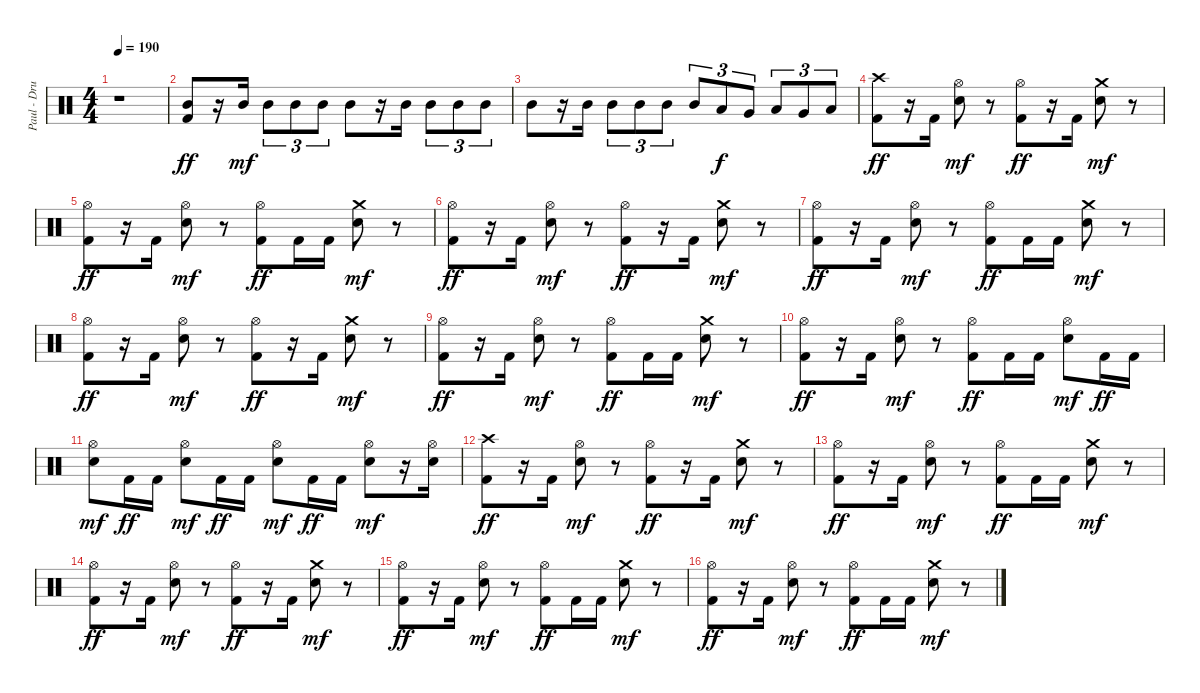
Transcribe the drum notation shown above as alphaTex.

\track ("Paul - Drums" "Paul - Dru") {instrument percussion}
\staff {score}
\articulation defaults
\ts (4 4)
\tempo 190
\clef neutral
\ks c
r.1{dy ff} |
("Mid Tom (hit)" "Kick (hit) 2").8 r.16 "Mid Tom (hit)".16{dy mf} "Mid Tom (hit)".8{tu (3 2)} "Mid Tom (hit)".8{tu (3 2)} "Mid Tom (hit)".8{tu (3 2)} "Mid Tom (hit)".8 r.16 "Mid Tom (hit)".16 "Mid Tom (hit)".8{tu (3 2)} "Mid Tom (hit)".8{tu (3 2)} "Mid Tom (hit)".8{tu (3 2)} |
"Mid Tom (hit)".8 r.16 "Mid Tom (hit)".16 "Mid Tom (hit)".8{tu (3 2)} "Mid Tom (hit)".8{tu (3 2)} "Mid Tom (hit)".8{tu (3 2)} "Mid Tom (hit)".8{tu (3 2)} "Low Tom (hit)".8{tu (3 2) dy f} "Very Low Tom (hit)".8{tu (3 2)} "Low Tom (hit)".8{tu (3 2)} "Very Low Tom (hit)".8{tu (3 2)} "Low Floor Tom (hit)".8{tu (3 2)} |
("Crash high (hit)" "Kick (hit) 2").8{dy ff} r.16 "Kick (hit) 2".16 ("Hi-Hat (open)" "Electric Snare (hit)").8{dy mf} r.8 ("Hi-Hat (open)" "Kick (hit) 2").8{dy ff} r.16 "Kick (hit) 2".16 ("Crash medium (hit)" "Electric Snare (hit)").8{dy mf} r.8 |
("Hi-Hat (open)" "Kick (hit) 2").8{dy ff} r.16 "Kick (hit) 2".16 ("Hi-Hat (open)" "Electric Snare (hit)").8{dy mf} r.8 ("Hi-Hat (open)" "Kick (hit) 2").8{dy ff} "Kick (hit) 2".16 "Kick (hit) 2".16 ("Crash medium (hit)" "Electric Snare (hit)").8{dy mf} r.8 |
("Hi-Hat (open)" "Kick (hit) 2").8{dy ff} r.16 "Kick (hit) 2".16 ("Hi-Hat (open)" "Electric Snare (hit)").8{dy mf} r.8 ("Hi-Hat (open)" "Kick (hit) 2").8{dy ff} r.16 "Kick (hit) 2".16 ("Crash medium (hit)" "Electric Snare (hit)").8{dy mf} r.8 |
("Hi-Hat (open)" "Kick (hit) 2").8{dy ff} r.16 "Kick (hit) 2".16 ("Hi-Hat (open)" "Electric Snare (hit)").8{dy mf} r.8 ("Hi-Hat (open)" "Kick (hit) 2").8{dy ff} "Kick (hit) 2".16 "Kick (hit) 2".16 ("Crash medium (hit)" "Electric Snare (hit)").8{dy mf} r.8 |
("Hi-Hat (open)" "Kick (hit) 2").8{dy ff} r.16 "Kick (hit) 2".16 ("Hi-Hat (open)" "Electric Snare (hit)").8{dy mf} r.8 ("Hi-Hat (open)" "Kick (hit) 2").8{dy ff} r.16 "Kick (hit) 2".16 ("Crash medium (hit)" "Electric Snare (hit)").8{dy mf} r.8 |
("Hi-Hat (open)" "Kick (hit) 2").8{dy ff} r.16 "Kick (hit) 2".16 ("Hi-Hat (open)" "Electric Snare (hit)").8{dy mf} r.8 ("Hi-Hat (open)" "Kick (hit) 2").8{dy ff} "Kick (hit) 2".16 "Kick (hit) 2".16 ("Crash medium (hit)" "Electric Snare (hit)").8{dy mf} r.8 |
("Hi-Hat (open)" "Kick (hit) 2").8{dy ff} r.16 "Kick (hit) 2".16 ("Hi-Hat (open)" "Electric Snare (hit)").8{dy mf} r.8 ("Hi-Hat (open)" "Kick (hit) 2").8{dy ff} "Kick (hit) 2".16 "Kick (hit) 2".16 ("Hi-Hat (open)" "Electric Snare (hit)").8{dy mf} "Kick (hit) 2".16{dy ff} "Kick (hit) 2".16 |
("Hi-Hat (open)" "Electric Snare (hit)").8{dy mf} "Kick (hit) 2".16{dy ff} "Kick (hit) 2".16 ("Hi-Hat (open)" "Electric Snare (hit)").8{dy mf} "Kick (hit) 2".16{dy ff} "Kick (hit) 2".16 ("Hi-Hat (open)" "Electric Snare (hit)").8{dy mf} "Kick (hit) 2".16{dy ff} "Kick (hit) 2".16 ("Hi-Hat (open)" "Electric Snare (hit)").8{dy mf} r.16 ("Hi-Hat (open)" "Electric Snare (hit)").16 |
("Crash high (hit)" "Kick (hit) 2").8{dy ff} r.16 "Kick (hit) 2".16 ("Hi-Hat (open)" "Electric Snare (hit)").8{dy mf} r.8 ("Hi-Hat (open)" "Kick (hit) 2").8{dy ff} r.16 "Kick (hit) 2".16 ("Crash medium (hit)" "Electric Snare (hit)").8{dy mf} r.8 |
("Hi-Hat (open)" "Kick (hit) 2").8{dy ff} r.16 "Kick (hit) 2".16 ("Hi-Hat (open)" "Electric Snare (hit)").8{dy mf} r.8 ("Hi-Hat (open)" "Kick (hit) 2").8{dy ff} "Kick (hit) 2".16 "Kick (hit) 2".16 ("Crash medium (hit)" "Electric Snare (hit)").8{dy mf} r.8 |
("Hi-Hat (open)" "Kick (hit) 2").8{dy ff} r.16 "Kick (hit) 2".16 ("Hi-Hat (open)" "Electric Snare (hit)").8{dy mf} r.8 ("Hi-Hat (open)" "Kick (hit) 2").8{dy ff} r.16 "Kick (hit) 2".16 ("Crash medium (hit)" "Electric Snare (hit)").8{dy mf} r.8 |
("Hi-Hat (open)" "Kick (hit) 2").8{dy ff} r.16 "Kick (hit) 2".16 ("Hi-Hat (open)" "Electric Snare (hit)").8{dy mf} r.8 ("Hi-Hat (open)" "Kick (hit) 2").8{dy ff} "Kick (hit) 2".16 "Kick (hit) 2".16 ("Crash medium (hit)" "Electric Snare (hit)").8{dy mf} r.8 |
("Hi-Hat (open)" "Kick (hit) 2").8{dy ff} r.16 "Kick (hit) 2".16 ("Hi-Hat (open)" "Electric Snare (hit)").8{dy mf} r.8 ("Hi-Hat (open)" "Kick (hit) 2").8{dy ff} "Kick (hit) 2".16 "Kick (hit) 2".16 ("Crash medium (hit)" "Electric Snare (hit)").8{dy mf} r.8
